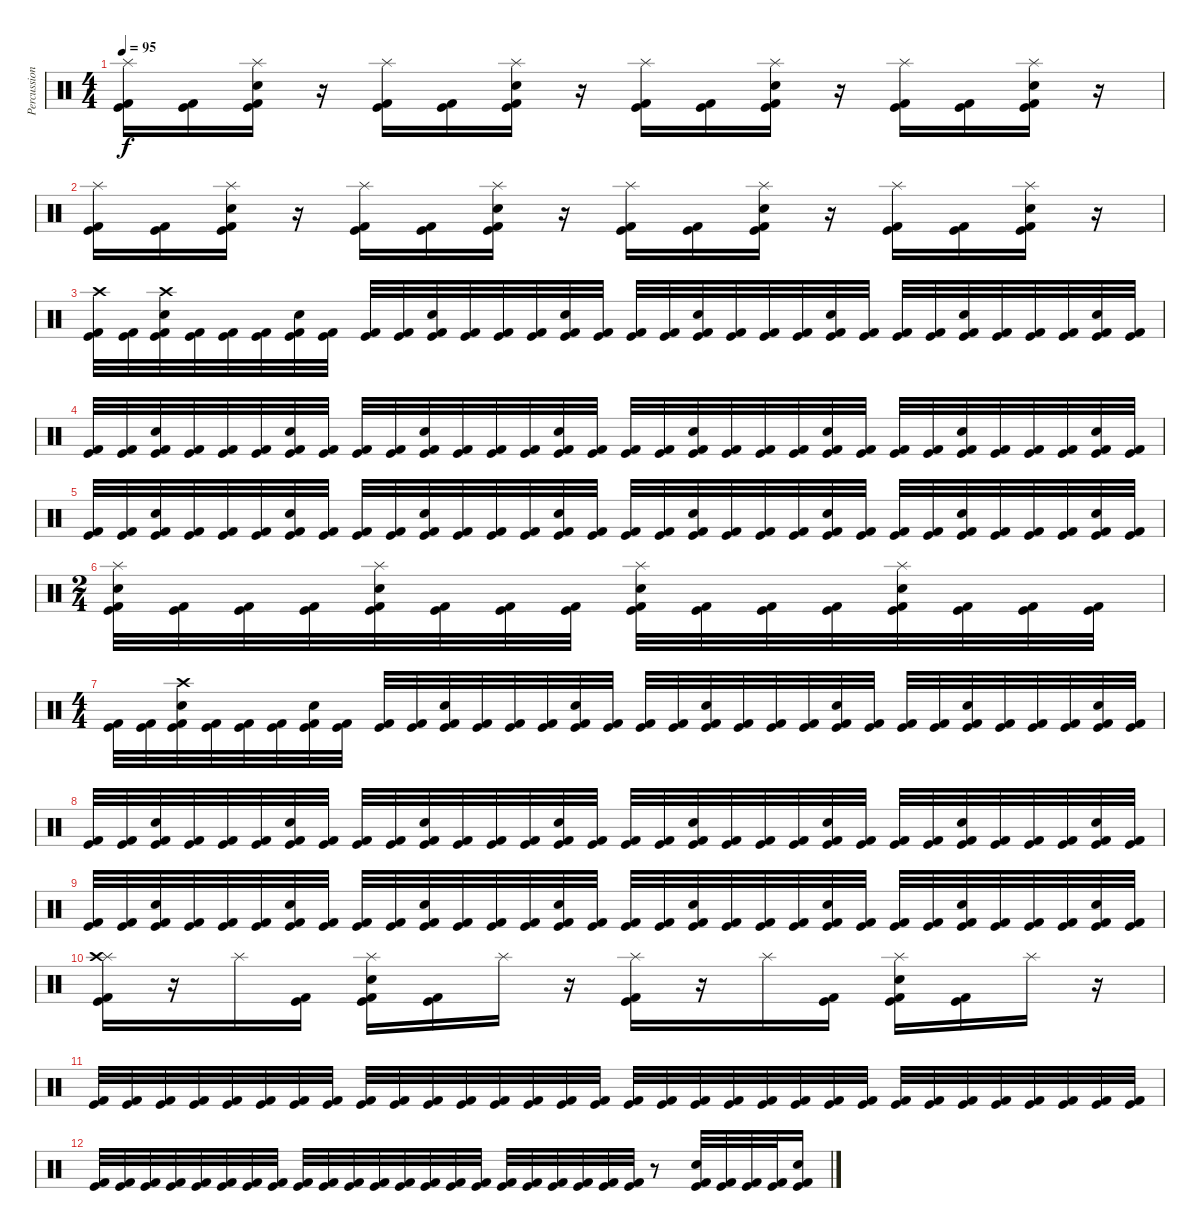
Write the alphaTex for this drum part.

\track ("Percussion" "Percussion") {instrument percussion}
\staff {score}
\articulation defaults
\ts (4 4)
\tempo 95
\clef neutral
\ks c
("Splash (hit)" "Kick (hit) 2" "Kick (hit)").16{dy f} ("Kick (hit) 2" "Kick (hit)").16 ("Splash (hit)" "Snare (hit) 2" "Kick (hit) 2" "Kick (hit)").16 r.16 ("Splash (hit)" "Kick (hit) 2" "Kick (hit)").16 ("Kick (hit) 2" "Kick (hit)").16 ("Splash (hit)" "Snare (hit) 2" "Kick (hit) 2" "Kick (hit)").16 r.16 ("Splash (hit)" "Kick (hit) 2" "Kick (hit)").16 ("Kick (hit) 2" "Kick (hit)").16 ("Splash (hit)" "Snare (hit) 2" "Kick (hit) 2" "Kick (hit)").16 r.16 ("Splash (hit)" "Kick (hit) 2" "Kick (hit)").16 ("Kick (hit) 2" "Kick (hit)").16 ("Splash (hit)" "Snare (hit) 2" "Kick (hit) 2" "Kick (hit)").16 r.16 |
("Splash (hit)" "Kick (hit) 2" "Kick (hit)").16 ("Kick (hit) 2" "Kick (hit)").16 ("Splash (hit)" "Snare (hit) 2" "Kick (hit) 2" "Kick (hit)").16 r.16 ("Splash (hit)" "Kick (hit) 2" "Kick (hit)").16 ("Kick (hit) 2" "Kick (hit)").16 ("Splash (hit)" "Snare (hit) 2" "Kick (hit) 2" "Kick (hit)").16 r.16 ("Splash (hit)" "Kick (hit) 2" "Kick (hit)").16 ("Kick (hit) 2" "Kick (hit)").16 ("Splash (hit)" "Snare (hit) 2" "Kick (hit) 2" "Kick (hit)").16 r.16 ("Splash (hit)" "Kick (hit) 2" "Kick (hit)").16 ("Kick (hit) 2" "Kick (hit)").16 ("Splash (hit)" "Snare (hit) 2" "Kick (hit) 2" "Kick (hit)").16 r.16 |
("Crash high (hit)" "Kick (hit)" "Kick (hit) 2").32 ("Kick (hit)" "Kick (hit) 2").32 ("Crash high (hit)" "Snare (hit) 2" "Kick (hit)" "Kick (hit) 2").32 ("Kick (hit)" "Kick (hit) 2").32 ("Kick (hit)" "Kick (hit) 2").32 ("Kick (hit)" "Kick (hit) 2").32 ("Snare (hit) 2" "Kick (hit)" "Kick (hit) 2").32 ("Kick (hit)" "Kick (hit) 2").32 ("Kick (hit)" "Kick (hit) 2").32 ("Kick (hit)" "Kick (hit) 2").32 ("Snare (hit) 2" "Kick (hit)" "Kick (hit) 2").32 ("Kick (hit)" "Kick (hit) 2").32 ("Kick (hit)" "Kick (hit) 2").32 ("Kick (hit)" "Kick (hit) 2").32 ("Snare (hit) 2" "Kick (hit)" "Kick (hit) 2").32 ("Kick (hit)" "Kick (hit) 2").32 ("Kick (hit) 2" "Kick (hit)").32 ("Kick (hit) 2" "Kick (hit)").32 ("Snare (hit) 2" "Kick (hit) 2" "Kick (hit)").32 ("Kick (hit) 2" "Kick (hit)").32 ("Kick (hit) 2" "Kick (hit)").32 ("Kick (hit) 2" "Kick (hit)").32 ("Snare (hit) 2" "Kick (hit) 2" "Kick (hit)").32 ("Kick (hit) 2" "Kick (hit)").32 ("Kick (hit) 2" "Kick (hit)").32 ("Kick (hit) 2" "Kick (hit)").32 ("Snare (hit) 2" "Kick (hit) 2" "Kick (hit)").32 ("Kick (hit) 2" "Kick (hit)").32 ("Kick (hit) 2" "Kick (hit)").32 ("Kick (hit) 2" "Kick (hit)").32 ("Snare (hit) 2" "Kick (hit) 2" "Kick (hit)").32 ("Kick (hit) 2" "Kick (hit)").32 |
("Kick (hit) 2" "Kick (hit)").32 ("Kick (hit) 2" "Kick (hit)").32 ("Snare (hit) 2" "Kick (hit) 2" "Kick (hit)").32 ("Kick (hit) 2" "Kick (hit)").32 ("Kick (hit) 2" "Kick (hit)").32 ("Kick (hit) 2" "Kick (hit)").32 ("Snare (hit) 2" "Kick (hit) 2" "Kick (hit)").32 ("Kick (hit) 2" "Kick (hit)").32 ("Kick (hit) 2" "Kick (hit)").32 ("Kick (hit) 2" "Kick (hit)").32 ("Snare (hit) 2" "Kick (hit) 2" "Kick (hit)").32 ("Kick (hit) 2" "Kick (hit)").32 ("Kick (hit) 2" "Kick (hit)").32 ("Kick (hit) 2" "Kick (hit)").32 ("Snare (hit) 2" "Kick (hit) 2" "Kick (hit)").32 ("Kick (hit) 2" "Kick (hit)").32 ("Kick (hit) 2" "Kick (hit)").32 ("Kick (hit) 2" "Kick (hit)").32 ("Snare (hit) 2" "Kick (hit) 2" "Kick (hit)").32 ("Kick (hit) 2" "Kick (hit)").32 ("Kick (hit) 2" "Kick (hit)").32 ("Kick (hit) 2" "Kick (hit)").32 ("Snare (hit) 2" "Kick (hit) 2" "Kick (hit)").32 ("Kick (hit) 2" "Kick (hit)").32 ("Kick (hit) 2" "Kick (hit)").32 ("Kick (hit) 2" "Kick (hit)").32 ("Snare (hit) 2" "Kick (hit) 2" "Kick (hit)").32 ("Kick (hit) 2" "Kick (hit)").32 ("Kick (hit) 2" "Kick (hit)").32 ("Kick (hit) 2" "Kick (hit)").32 ("Snare (hit) 2" "Kick (hit) 2" "Kick (hit)").32 ("Kick (hit) 2" "Kick (hit)").32 |
("Kick (hit) 2" "Kick (hit)").32 ("Kick (hit) 2" "Kick (hit)").32 ("Snare (hit) 2" "Kick (hit) 2" "Kick (hit)").32 ("Kick (hit) 2" "Kick (hit)").32 ("Kick (hit) 2" "Kick (hit)").32 ("Kick (hit) 2" "Kick (hit)").32 ("Snare (hit) 2" "Kick (hit) 2" "Kick (hit)").32 ("Kick (hit) 2" "Kick (hit)").32 ("Kick (hit) 2" "Kick (hit)").32 ("Kick (hit) 2" "Kick (hit)").32 ("Snare (hit) 2" "Kick (hit) 2" "Kick (hit)").32 ("Kick (hit) 2" "Kick (hit)").32 ("Kick (hit) 2" "Kick (hit)").32 ("Kick (hit) 2" "Kick (hit)").32 ("Snare (hit) 2" "Kick (hit) 2" "Kick (hit)").32 ("Kick (hit) 2" "Kick (hit)").32 ("Kick (hit) 2" "Kick (hit)").32 ("Kick (hit) 2" "Kick (hit)").32 ("Snare (hit) 2" "Kick (hit) 2" "Kick (hit)").32 ("Kick (hit) 2" "Kick (hit)").32 ("Kick (hit) 2" "Kick (hit)").32 ("Kick (hit) 2" "Kick (hit)").32 ("Snare (hit) 2" "Kick (hit) 2" "Kick (hit)").32 ("Kick (hit) 2" "Kick (hit)").32 ("Kick (hit) 2" "Kick (hit)").32 ("Kick (hit) 2" "Kick (hit)").32 ("Snare (hit) 2" "Kick (hit) 2" "Kick (hit)").32 ("Kick (hit) 2" "Kick (hit)").32 ("Kick (hit) 2" "Kick (hit)").32 ("Kick (hit) 2" "Kick (hit)").32 ("Snare (hit) 2" "Kick (hit) 2" "Kick (hit)").32 ("Kick (hit) 2" "Kick (hit)").32 |
\ts (2 4)
("Splash (hit)" "Snare (hit) 2" "Kick (hit) 2" "Kick (hit)").32 ("Kick (hit) 2" "Kick (hit)").32 ("Kick (hit) 2" "Kick (hit)").32 ("Kick (hit) 2" "Kick (hit)").32 ("Splash (hit)" "Snare (hit) 2" "Kick (hit) 2" "Kick (hit)").32 ("Kick (hit) 2" "Kick (hit)").32 ("Kick (hit) 2" "Kick (hit)").32 ("Kick (hit) 2" "Kick (hit)").32 ("Splash (hit)" "Snare (hit) 2" "Kick (hit) 2" "Kick (hit)").32 ("Kick (hit) 2" "Kick (hit)").32 ("Kick (hit) 2" "Kick (hit)").32 ("Kick (hit) 2" "Kick (hit)").32 ("Splash (hit)" "Snare (hit) 2" "Kick (hit) 2" "Kick (hit)").32 ("Kick (hit) 2" "Kick (hit)").32 ("Kick (hit) 2" "Kick (hit)").32 ("Kick (hit) 2" "Kick (hit)").32 |
\ts (4 4)
("Kick (hit) 2" "Kick (hit)").32 ("Kick (hit) 2" "Kick (hit)").32 ("Crash high (hit)" "Snare (hit) 2" "Kick (hit) 2" "Kick (hit)").32 ("Kick (hit) 2" "Kick (hit)").32 ("Kick (hit) 2" "Kick (hit)").32 ("Kick (hit) 2" "Kick (hit)").32 ("Snare (hit) 2" "Kick (hit) 2" "Kick (hit)").32 ("Kick (hit) 2" "Kick (hit)").32 ("Kick (hit) 2" "Kick (hit)").32 ("Kick (hit) 2" "Kick (hit)").32 ("Snare (hit) 2" "Kick (hit) 2" "Kick (hit)").32 ("Kick (hit) 2" "Kick (hit)").32 ("Kick (hit) 2" "Kick (hit)").32 ("Kick (hit) 2" "Kick (hit)").32 ("Snare (hit) 2" "Kick (hit) 2" "Kick (hit)").32 ("Kick (hit) 2" "Kick (hit)").32 ("Kick (hit) 2" "Kick (hit)").32 ("Kick (hit) 2" "Kick (hit)").32 ("Snare (hit) 2" "Kick (hit) 2" "Kick (hit)").32 ("Kick (hit) 2" "Kick (hit)").32 ("Kick (hit) 2" "Kick (hit)").32 ("Kick (hit) 2" "Kick (hit)").32 ("Snare (hit) 2" "Kick (hit) 2" "Kick (hit)").32 ("Kick (hit) 2" "Kick (hit)").32 ("Kick (hit) 2" "Kick (hit)").32 ("Kick (hit) 2" "Kick (hit)").32 ("Snare (hit) 2" "Kick (hit) 2" "Kick (hit)").32 ("Kick (hit) 2" "Kick (hit)").32 ("Kick (hit) 2" "Kick (hit)").32 ("Kick (hit) 2" "Kick (hit)").32 ("Snare (hit) 2" "Kick (hit) 2" "Kick (hit)").32 ("Kick (hit) 2" "Kick (hit)").32 |
("Kick (hit) 2" "Kick (hit)").32 ("Kick (hit) 2" "Kick (hit)").32 ("Snare (hit) 2" "Kick (hit) 2" "Kick (hit)").32 ("Kick (hit) 2" "Kick (hit)").32 ("Kick (hit) 2" "Kick (hit)").32 ("Kick (hit) 2" "Kick (hit)").32 ("Snare (hit) 2" "Kick (hit) 2" "Kick (hit)").32 ("Kick (hit) 2" "Kick (hit)").32 ("Kick (hit) 2" "Kick (hit)").32 ("Kick (hit) 2" "Kick (hit)").32 ("Snare (hit) 2" "Kick (hit) 2" "Kick (hit)").32 ("Kick (hit) 2" "Kick (hit)").32 ("Kick (hit) 2" "Kick (hit)").32 ("Kick (hit) 2" "Kick (hit)").32 ("Snare (hit) 2" "Kick (hit) 2" "Kick (hit)").32 ("Kick (hit) 2" "Kick (hit)").32 ("Kick (hit) 2" "Kick (hit)").32 ("Kick (hit) 2" "Kick (hit)").32 ("Snare (hit) 2" "Kick (hit) 2" "Kick (hit)").32 ("Kick (hit) 2" "Kick (hit)").32 ("Kick (hit) 2" "Kick (hit)").32 ("Kick (hit) 2" "Kick (hit)").32 ("Snare (hit) 2" "Kick (hit) 2" "Kick (hit)").32 ("Kick (hit) 2" "Kick (hit)").32 ("Kick (hit) 2" "Kick (hit)").32 ("Kick (hit) 2" "Kick (hit)").32 ("Snare (hit) 2" "Kick (hit) 2" "Kick (hit)").32 ("Kick (hit) 2" "Kick (hit)").32 ("Kick (hit) 2" "Kick (hit)").32 ("Kick (hit) 2" "Kick (hit)").32 ("Snare (hit) 2" "Kick (hit) 2" "Kick (hit)").32 ("Kick (hit) 2" "Kick (hit)").32 |
("Kick (hit) 2" "Kick (hit)").32 ("Kick (hit) 2" "Kick (hit)").32 ("Snare (hit) 2" "Kick (hit) 2" "Kick (hit)").32 ("Kick (hit) 2" "Kick (hit)").32 ("Kick (hit) 2" "Kick (hit)").32 ("Kick (hit) 2" "Kick (hit)").32 ("Snare (hit) 2" "Kick (hit) 2" "Kick (hit)").32 ("Kick (hit) 2" "Kick (hit)").32 ("Kick (hit) 2" "Kick (hit)").32 ("Kick (hit) 2" "Kick (hit)").32 ("Snare (hit) 2" "Kick (hit) 2" "Kick (hit)").32 ("Kick (hit) 2" "Kick (hit)").32 ("Kick (hit) 2" "Kick (hit)").32 ("Kick (hit) 2" "Kick (hit)").32 ("Snare (hit) 2" "Kick (hit) 2" "Kick (hit)").32 ("Kick (hit) 2" "Kick (hit)").32 ("Kick (hit) 2" "Kick (hit)").32 ("Kick (hit) 2" "Kick (hit)").32 ("Snare (hit) 2" "Kick (hit) 2" "Kick (hit)").32 ("Kick (hit) 2" "Kick (hit)").32 ("Kick (hit) 2" "Kick (hit)").32 ("Kick (hit) 2" "Kick (hit)").32 ("Snare (hit) 2" "Kick (hit) 2" "Kick (hit)").32 ("Kick (hit) 2" "Kick (hit)").32 ("Kick (hit) 2" "Kick (hit)").32 ("Kick (hit) 2" "Kick (hit)").32 ("Snare (hit) 2" "Kick (hit) 2" "Kick (hit)").32 ("Kick (hit) 2" "Kick (hit)").32 ("Kick (hit) 2" "Kick (hit)").32 ("Kick (hit) 2" "Kick (hit)").32 ("Snare (hit) 2" "Kick (hit) 2" "Kick (hit)").32 ("Kick (hit) 2" "Kick (hit)").32 |
("Splash (hit)" "Kick (hit) 2" "Kick (hit)" "Crash high (hit)").16 r.16 "Splash (hit)".16 ("Kick (hit) 2" "Kick (hit)").16 ("Splash (hit)" "Snare (hit) 2" "Kick (hit) 2" "Kick (hit)").16 ("Kick (hit)" "Kick (hit) 2").16 "Splash (hit)".16 r.16 ("Splash (hit)" "Kick (hit)" "Kick (hit) 2").16 r.16 "Splash (hit)".16 ("Kick (hit)" "Kick (hit) 2").16 ("Splash (hit)" "Snare (hit) 2" "Kick (hit)" "Kick (hit) 2").16 ("Kick (hit)" "Kick (hit) 2").16 "Splash (hit)".16 r.16 |
("Kick (hit) 2" "Kick (hit)").32 ("Kick (hit) 2" "Kick (hit)").32 ("Kick (hit) 2" "Kick (hit)").32 ("Kick (hit) 2" "Kick (hit)").32 ("Kick (hit) 2" "Kick (hit)").32 ("Kick (hit) 2" "Kick (hit)").32 ("Kick (hit) 2" "Kick (hit)").32 ("Kick (hit) 2" "Kick (hit)").32 ("Kick (hit) 2" "Kick (hit)").32 ("Kick (hit) 2" "Kick (hit)").32 ("Kick (hit) 2" "Kick (hit)").32 ("Kick (hit) 2" "Kick (hit)").32 ("Kick (hit) 2" "Kick (hit)").32 ("Kick (hit) 2" "Kick (hit)").32 ("Kick (hit) 2" "Kick (hit)").32 ("Kick (hit) 2" "Kick (hit)").32 ("Kick (hit) 2" "Kick (hit)").32 ("Kick (hit) 2" "Kick (hit)").32 ("Kick (hit) 2" "Kick (hit)").32 ("Kick (hit) 2" "Kick (hit)").32 ("Kick (hit) 2" "Kick (hit)").32 ("Kick (hit) 2" "Kick (hit)").32 ("Kick (hit) 2" "Kick (hit)").32 ("Kick (hit) 2" "Kick (hit)").32 ("Kick (hit) 2" "Kick (hit)").32 ("Kick (hit) 2" "Kick (hit)").32 ("Kick (hit) 2" "Kick (hit)").32 ("Kick (hit) 2" "Kick (hit)").32 ("Kick (hit) 2" "Kick (hit)").32 ("Kick (hit) 2" "Kick (hit)").32 ("Kick (hit) 2" "Kick (hit)").32 ("Kick (hit) 2" "Kick (hit)").32 |
("Kick (hit) 2" "Kick (hit)").32 ("Kick (hit) 2" "Kick (hit)").32 ("Kick (hit) 2" "Kick (hit)").32 ("Kick (hit) 2" "Kick (hit)").32 ("Kick (hit) 2" "Kick (hit)").32 ("Kick (hit) 2" "Kick (hit)").32 ("Kick (hit) 2" "Kick (hit)").32 ("Kick (hit) 2" "Kick (hit)").32 ("Kick (hit) 2" "Kick (hit)").32 ("Kick (hit) 2" "Kick (hit)").32 ("Kick (hit) 2" "Kick (hit)").32 ("Kick (hit) 2" "Kick (hit)").32 ("Kick (hit) 2" "Kick (hit)").32 ("Kick (hit) 2" "Kick (hit)").32 ("Kick (hit) 2" "Kick (hit)").32 ("Kick (hit) 2" "Kick (hit)").32 ("Kick (hit) 2" "Kick (hit)").32 ("Kick (hit) 2" "Kick (hit)").32 ("Kick (hit) 2" "Kick (hit)").32 ("Kick (hit)" "Kick (hit) 2").32 ("Kick (hit) 2" "Kick (hit)").32 ("Kick (hit)" "Kick (hit) 2").32 r.8 ("Snare (hit) 2" "Kick (hit) 2" "Kick (hit)").32 ("Kick (hit) 2" "Kick (hit)").32 ("Kick (hit) 2" "Kick (hit)").32 ("Kick (hit) 2" "Kick (hit)").32 ("Snare (hit) 2" "Kick (hit) 2" "Kick (hit)").16
